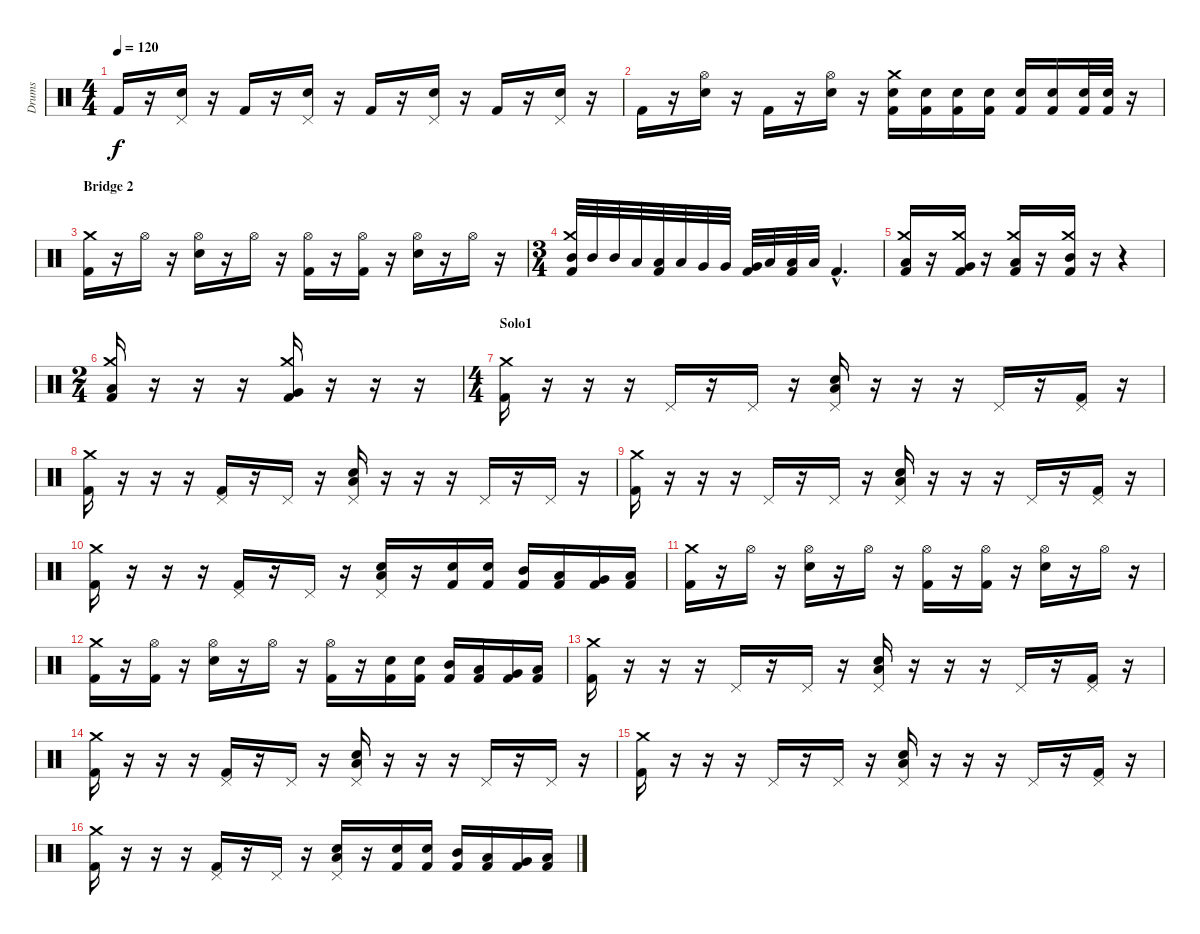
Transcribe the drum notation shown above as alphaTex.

\track ("Drums" "Drums") {instrument percussion}
\staff {score}
\articulation defaults
\ts (4 4)
\tempo 120
\clef neutral
\ks c "Kick (hit) 2".16{dy f}
r.16 ("Pedal Hi-Hat (hit)" "Electric Snare (hit)").16 r.16 "Kick (hit) 2".16 r.16 ("Pedal Hi-Hat (hit)" "Electric Snare (hit)").16 r.16 "Kick (hit) 2".16 r.16 ("Pedal Hi-Hat (hit)" "Electric Snare (hit)").16 r.16 "Kick (hit) 2".16 r.16 ("Pedal Hi-Hat (hit)" "Electric Snare (hit)").16 r.16 |
"Kick (hit) 2".16 r.16 ("Hi-Hat (open)" "Electric Snare (hit)").16 r.16 "Kick (hit) 2".16 r.16 ("Hi-Hat (open)" "Electric Snare (hit)").16 r.16 ("Crash medium (hit)" "Electric Snare (hit)" "Kick (hit) 2").16 ("Electric Snare (hit)" "Kick (hit) 2").16 ("Electric Snare (hit)" "Kick (hit) 2").16 ("Electric Snare (hit)" "Kick (hit) 2").16 ("Electric Snare (hit)" "Kick (hit) 2").16 ("Electric Snare (hit)" "Kick (hit) 2").16 ("Electric Snare (hit)" "Kick (hit) 2").32 ("Electric Snare (hit)" "Kick (hit) 2").32 r.16 |
\section ("" "Bridge 2")
("Crash medium (hit)" "Kick (hit) 2").16 r.16 "Hi-Hat (open)".16 r.16 ("Hi-Hat (open)" "Electric Snare (hit)").16 r.16 "Hi-Hat (open)".16 r.16 ("Hi-Hat (open)" "Kick (hit) 2").16 r.16 ("Hi-Hat (open)" "Kick (hit) 2").16 r.16 ("Hi-Hat (open)" "Electric Snare (hit)").16 r.16 "Hi-Hat (open)".16 r.16 |
\ts (3 4)
("Crash medium (hit)" "Mid Tom (hit)" "Kick (hit) 2").32 "Mid Tom (hit)".32 "Mid Tom (hit)".32 "Low Tom (hit)".32 ("Low Tom (hit)" "Kick (hit) 2").32 "Low Tom (hit)".32 "Very Low Tom (hit)".32 "Very Low Tom (hit)".32 ("Very Low Tom (hit)" "Kick (hit) 2").32 "Low Floor Tom (hit)".32 ("Low Floor Tom (hit)" "Kick (hit) 2").32 "Low Floor Tom (hit)".32 "Kick (hit) 2"{hac}.4{d} |
("Crash medium (hit)" "Low Floor Tom (hit)" "Kick (hit) 2").16 r.16 ("Crash medium (hit)" "Very Low Tom (hit)" "Kick (hit) 2").16 r.16 ("Crash medium (hit)" "Low Tom (hit)" "Kick (hit) 2").16 r.16 ("Crash medium (hit)" "Mid Tom (hit)" "Kick (hit) 2").16 r.16 r.4 |
\ts (2 4)
("Crash medium (hit)" "Low Tom (hit)" "Kick (hit) 2").16 r.16 r.16 r.16 ("Crash medium (hit)" "Very Low Tom (hit)" "Kick (hit) 2").16 r.16 r.16 r.16 |
\ts (4 4)
\section ("" "Solo1")
("Crash medium (hit)" "Kick (hit) 2").16 r.16 r.16 r.16 "Pedal Hi-Hat (hit)".16 r.16 "Pedal Hi-Hat (hit)".16 r.16 ("Pedal Hi-Hat (hit)" "Low Tom (hit)" "Electric Snare (hit)").16 r.16 r.16 r.16 "Pedal Hi-Hat (hit)".16 r.16 ("Pedal Hi-Hat (hit)" "Kick (hit) 2").16 r.16 |
("Crash medium (hit)" "Kick (hit) 2").16 r.16 r.16 r.16 ("Pedal Hi-Hat (hit)" "Kick (hit) 2").16 r.16 "Pedal Hi-Hat (hit)".16 r.16 ("Pedal Hi-Hat (hit)" "Low Tom (hit)" "Electric Snare (hit)").16 r.16 r.16 r.16 "Pedal Hi-Hat (hit)".16 r.16 "Pedal Hi-Hat (hit)".16 r.16 |
("Crash medium (hit)" "Kick (hit) 2").16 r.16 r.16 r.16 "Pedal Hi-Hat (hit)".16 r.16 "Pedal Hi-Hat (hit)".16 r.16 ("Pedal Hi-Hat (hit)" "Low Tom (hit)" "Electric Snare (hit)").16 r.16 r.16 r.16 "Pedal Hi-Hat (hit)".16 r.16 ("Pedal Hi-Hat (hit)" "Kick (hit) 2").16 r.16 |
("Crash medium (hit)" "Kick (hit) 2").16 r.16 r.16 r.16 ("Pedal Hi-Hat (hit)" "Kick (hit) 2").16 r.16 "Pedal Hi-Hat (hit)".16 r.16 ("Pedal Hi-Hat (hit)" "Low Tom (hit)" "Electric Snare (hit)").16 r.16 ("Electric Snare (hit)" "Kick (hit) 2").16 ("Electric Snare (hit)" "Kick (hit) 2").16 ("Mid Tom (hit)" "Kick (hit) 2").16 ("Low Tom (hit)" "Kick (hit) 2").16 ("Very Low Tom (hit)" "Kick (hit) 2").16 ("Low Floor Tom (hit)" "Kick (hit) 2").16 |
("Crash medium (hit)" "Kick (hit) 2").16 r.16 "Hi-Hat (open)".16 r.16 ("Hi-Hat (open)" "Electric Snare (hit)").16 r.16 "Hi-Hat (open)".16 r.16 ("Hi-Hat (open)" "Kick (hit) 2").16 r.16 ("Hi-Hat (open)" "Kick (hit) 2").16 r.16 ("Hi-Hat (open)" "Electric Snare (hit)").16 r.16 "Hi-Hat (open)".16 r.16 |
("Crash medium (hit)" "Kick (hit) 2").16 r.16 ("Hi-Hat (open)" "Kick (hit) 2").16 r.16 ("Hi-Hat (open)" "Electric Snare (hit)").16 r.16 "Hi-Hat (open)".16 r.16 ("Hi-Hat (open)" "Kick (hit) 2").16 r.16 ("Electric Snare (hit)" "Kick (hit) 2").16 ("Electric Snare (hit)" "Kick (hit) 2").16 ("Mid Tom (hit)" "Kick (hit) 2").16 ("Low Tom (hit)" "Kick (hit) 2").16 ("Very Low Tom (hit)" "Kick (hit) 2").16 ("Low Floor Tom (hit)" "Kick (hit) 2").16 |
("Crash medium (hit)" "Kick (hit) 2").16 r.16 r.16 r.16 "Pedal Hi-Hat (hit)".16 r.16 "Pedal Hi-Hat (hit)".16 r.16 ("Pedal Hi-Hat (hit)" "Low Tom (hit)" "Electric Snare (hit)").16 r.16 r.16 r.16 "Pedal Hi-Hat (hit)".16 r.16 ("Pedal Hi-Hat (hit)" "Kick (hit) 2").16 r.16 |
("Crash medium (hit)" "Kick (hit) 2").16 r.16 r.16 r.16 ("Pedal Hi-Hat (hit)" "Kick (hit) 2").16 r.16 "Pedal Hi-Hat (hit)".16 r.16 ("Pedal Hi-Hat (hit)" "Low Tom (hit)" "Electric Snare (hit)").16 r.16 r.16 r.16 "Pedal Hi-Hat (hit)".16 r.16 "Pedal Hi-Hat (hit)".16 r.16 |
("Crash medium (hit)" "Kick (hit) 2").16 r.16 r.16 r.16 "Pedal Hi-Hat (hit)".16 r.16 "Pedal Hi-Hat (hit)".16 r.16 ("Pedal Hi-Hat (hit)" "Low Tom (hit)" "Electric Snare (hit)").16 r.16 r.16 r.16 "Pedal Hi-Hat (hit)".16 r.16 ("Pedal Hi-Hat (hit)" "Kick (hit) 2").16 r.16 |
("Crash medium (hit)" "Kick (hit) 2").16 r.16 r.16 r.16 ("Pedal Hi-Hat (hit)" "Kick (hit) 2").16 r.16 "Pedal Hi-Hat (hit)".16 r.16 ("Pedal Hi-Hat (hit)" "Low Tom (hit)" "Electric Snare (hit)").16 r.16 ("Electric Snare (hit)" "Kick (hit) 2").16 ("Electric Snare (hit)" "Kick (hit) 2").16 ("Mid Tom (hit)" "Kick (hit) 2").16 ("Low Tom (hit)" "Kick (hit) 2").16 ("Very Low Tom (hit)" "Kick (hit) 2").16 ("Low Floor Tom (hit)" "Kick (hit) 2").16
